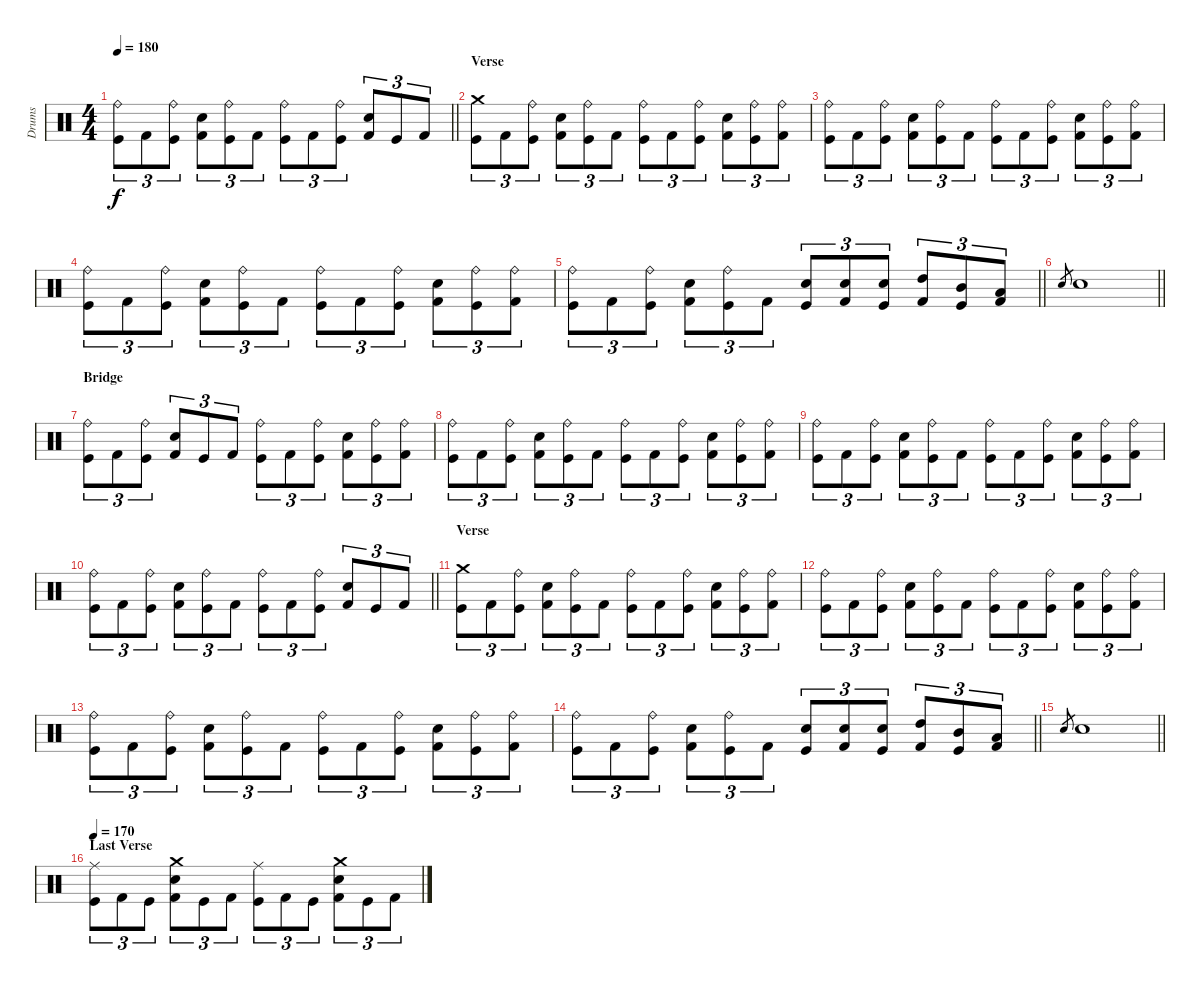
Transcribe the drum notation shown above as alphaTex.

\track ("Drums" "Drums") {instrument percussion}
\staff {score}
\articulation defaults
\ts (4 4)
\tempo 180
\clef neutral
\barLineRight lightlight
\ks c
("Ride (bell)" "Kick (hit)").8{tu (3 2) dy f} "Kick (hit) 2".8{tu (3 2)} ("Ride (bell)" "Kick (hit)").8{tu (3 2)} ("Electric Snare (hit)" "Kick (hit) 2").8{tu (3 2)} ("Ride (bell)" "Kick (hit)").8{tu (3 2)} "Kick (hit) 2".8{tu (3 2)} ("Ride (bell)" "Kick (hit)").8{tu (3 2)} "Kick (hit) 2".8{tu (3 2)} ("Ride (bell)" "Kick (hit)").8{tu (3 2)} ("Electric Snare (hit)" "Kick (hit) 2").8{tu (3 2)} "Kick (hit)".8{tu (3 2)} "Kick (hit) 2".8{tu (3 2)} |
\section ("" "Verse")
("Crash medium (hit)" "Kick (hit)").8{tu (3 2)} "Kick (hit) 2".8{tu (3 2)} ("Ride (bell)" "Kick (hit)").8{tu (3 2)} ("Electric Snare (hit)" "Kick (hit) 2").8{tu (3 2)} ("Ride (bell)" "Kick (hit)").8{tu (3 2)} "Kick (hit) 2".8{tu (3 2)} ("Ride (bell)" "Kick (hit)").8{tu (3 2)} "Kick (hit) 2".8{tu (3 2)} ("Ride (bell)" "Kick (hit)").8{tu (3 2)} ("Electric Snare (hit)" "Kick (hit) 2").8{tu (3 2)} ("Ride (bell)" "Kick (hit)").8{tu (3 2)} ("Ride (bell)" "Kick (hit) 2").8{tu (3 2)} |
("Ride (bell)" "Kick (hit)").8{tu (3 2)} "Kick (hit) 2".8{tu (3 2)} ("Ride (bell)" "Kick (hit)").8{tu (3 2)} ("Electric Snare (hit)" "Kick (hit) 2").8{tu (3 2)} ("Ride (bell)" "Kick (hit)").8{tu (3 2)} "Kick (hit) 2".8{tu (3 2)} ("Ride (bell)" "Kick (hit)").8{tu (3 2)} "Kick (hit) 2".8{tu (3 2)} ("Ride (bell)" "Kick (hit)").8{tu (3 2)} ("Electric Snare (hit)" "Kick (hit) 2").8{tu (3 2)} ("Ride (bell)" "Kick (hit)").8{tu (3 2)} ("Ride (bell)" "Kick (hit) 2").8{tu (3 2)} |
("Ride (bell)" "Kick (hit)").8{tu (3 2)} "Kick (hit) 2".8{tu (3 2)} ("Ride (bell)" "Kick (hit)").8{tu (3 2)} ("Electric Snare (hit)" "Kick (hit) 2").8{tu (3 2)} ("Ride (bell)" "Kick (hit)").8{tu (3 2)} "Kick (hit) 2".8{tu (3 2)} ("Ride (bell)" "Kick (hit)").8{tu (3 2)} "Kick (hit) 2".8{tu (3 2)} ("Ride (bell)" "Kick (hit)").8{tu (3 2)} ("Electric Snare (hit)" "Kick (hit) 2").8{tu (3 2)} ("Ride (bell)" "Kick (hit)").8{tu (3 2)} ("Ride (bell)" "Kick (hit) 2").8{tu (3 2)} |
\barLineRight lightlight
("Ride (bell)" "Kick (hit)").8{tu (3 2)} "Kick (hit) 2".8{tu (3 2)} ("Ride (bell)" "Kick (hit)").8{tu (3 2)} ("Electric Snare (hit)" "Kick (hit) 2").8{tu (3 2)} ("Ride (bell)" "Kick (hit)").8{tu (3 2)} "Kick (hit) 2".8{tu (3 2)} ("Electric Snare (hit)" "Kick (hit)").8{tu (3 2)} ("Electric Snare (hit)" "Kick (hit) 2").8{tu (3 2)} ("Electric Snare (hit)" "Kick (hit)").8{tu (3 2)} ("High Tom (hit)" "Kick (hit) 2").8{tu (3 2)} ("Mid Tom (hit)" "Kick (hit)").8{tu (3 2)} ("Low Tom (hit)" "Kick (hit) 2").8{tu (3 2)} |
\barLineRight lightlight "Electric Snare (hit)".8{gr} "Electric Snare (hit)".1
|
\section ("" "Bridge")
("Ride (bell)" "Kick (hit)").8{tu (3 2)} "Kick (hit) 2".8{tu (3 2)} ("Ride (bell)" "Kick (hit)").8{tu (3 2)} ("Electric Snare (hit)" "Kick (hit) 2").8{tu (3 2)} "Kick (hit)".8{tu (3 2)} "Kick (hit) 2".8{tu (3 2)} ("Ride (bell)" "Kick (hit)").8{tu (3 2)} "Kick (hit) 2".8{tu (3 2)} ("Ride (bell)" "Kick (hit)").8{tu (3 2)} ("Electric Snare (hit)" "Kick (hit) 2").8{tu (3 2)} ("Ride (bell)" "Kick (hit)").8{tu (3 2)} ("Ride (bell)" "Kick (hit) 2").8{tu (3 2)} |
("Ride (bell)" "Kick (hit)").8{tu (3 2)} "Kick (hit) 2".8{tu (3 2)} ("Ride (bell)" "Kick (hit)").8{tu (3 2)} ("Electric Snare (hit)" "Kick (hit) 2").8{tu (3 2)} ("Ride (bell)" "Kick (hit)").8{tu (3 2)} "Kick (hit) 2".8{tu (3 2)} ("Ride (bell)" "Kick (hit)").8{tu (3 2)} "Kick (hit) 2".8{tu (3 2)} ("Ride (bell)" "Kick (hit)").8{tu (3 2)} ("Electric Snare (hit)" "Kick (hit) 2").8{tu (3 2)} ("Ride (bell)" "Kick (hit)").8{tu (3 2)} ("Ride (bell)" "Kick (hit) 2").8{tu (3 2)} |
("Ride (bell)" "Kick (hit)").8{tu (3 2)} "Kick (hit) 2".8{tu (3 2)} ("Ride (bell)" "Kick (hit)").8{tu (3 2)} ("Electric Snare (hit)" "Kick (hit) 2").8{tu (3 2)} ("Ride (bell)" "Kick (hit)").8{tu (3 2)} "Kick (hit) 2".8{tu (3 2)} ("Ride (bell)" "Kick (hit)").8{tu (3 2)} "Kick (hit) 2".8{tu (3 2)} ("Ride (bell)" "Kick (hit)").8{tu (3 2)} ("Electric Snare (hit)" "Kick (hit) 2").8{tu (3 2)} ("Ride (bell)" "Kick (hit)").8{tu (3 2)} ("Ride (bell)" "Kick (hit) 2").8{tu (3 2)} |
\barLineRight lightlight
("Ride (bell)" "Kick (hit)").8{tu (3 2)} "Kick (hit) 2".8{tu (3 2)} ("Ride (bell)" "Kick (hit)").8{tu (3 2)} ("Electric Snare (hit)" "Kick (hit) 2").8{tu (3 2)} ("Ride (bell)" "Kick (hit)").8{tu (3 2)} "Kick (hit) 2".8{tu (3 2)} ("Ride (bell)" "Kick (hit)").8{tu (3 2)} "Kick (hit) 2".8{tu (3 2)} ("Ride (bell)" "Kick (hit)").8{tu (3 2)} ("Electric Snare (hit)" "Kick (hit) 2").8{tu (3 2)} "Kick (hit)".8{tu (3 2)} "Kick (hit) 2".8{tu (3 2)} |
\section ("" "Verse")
("Crash medium (hit)" "Kick (hit)").8{tu (3 2)} "Kick (hit) 2".8{tu (3 2)} ("Ride (bell)" "Kick (hit)").8{tu (3 2)} ("Electric Snare (hit)" "Kick (hit) 2").8{tu (3 2)} ("Ride (bell)" "Kick (hit)").8{tu (3 2)} "Kick (hit) 2".8{tu (3 2)} ("Ride (bell)" "Kick (hit)").8{tu (3 2)} "Kick (hit) 2".8{tu (3 2)} ("Ride (bell)" "Kick (hit)").8{tu (3 2)} ("Electric Snare (hit)" "Kick (hit) 2").8{tu (3 2)} ("Ride (bell)" "Kick (hit)").8{tu (3 2)} ("Ride (bell)" "Kick (hit) 2").8{tu (3 2)} |
("Ride (bell)" "Kick (hit)").8{tu (3 2)} "Kick (hit) 2".8{tu (3 2)} ("Ride (bell)" "Kick (hit)").8{tu (3 2)} ("Electric Snare (hit)" "Kick (hit) 2").8{tu (3 2)} ("Ride (bell)" "Kick (hit)").8{tu (3 2)} "Kick (hit) 2".8{tu (3 2)} ("Ride (bell)" "Kick (hit)").8{tu (3 2)} "Kick (hit) 2".8{tu (3 2)} ("Ride (bell)" "Kick (hit)").8{tu (3 2)} ("Electric Snare (hit)" "Kick (hit) 2").8{tu (3 2)} ("Ride (bell)" "Kick (hit)").8{tu (3 2)} ("Ride (bell)" "Kick (hit) 2").8{tu (3 2)} |
("Ride (bell)" "Kick (hit)").8{tu (3 2)} "Kick (hit) 2".8{tu (3 2)} ("Ride (bell)" "Kick (hit)").8{tu (3 2)} ("Electric Snare (hit)" "Kick (hit) 2").8{tu (3 2)} ("Ride (bell)" "Kick (hit)").8{tu (3 2)} "Kick (hit) 2".8{tu (3 2)} ("Ride (bell)" "Kick (hit)").8{tu (3 2)} "Kick (hit) 2".8{tu (3 2)} ("Ride (bell)" "Kick (hit)").8{tu (3 2)} ("Electric Snare (hit)" "Kick (hit) 2").8{tu (3 2)} ("Ride (bell)" "Kick (hit)").8{tu (3 2)} ("Ride (bell)" "Kick (hit) 2").8{tu (3 2)} |
\barLineRight lightlight
("Ride (bell)" "Kick (hit)").8{tu (3 2)} "Kick (hit) 2".8{tu (3 2)} ("Ride (bell)" "Kick (hit)").8{tu (3 2)} ("Electric Snare (hit)" "Kick (hit) 2").8{tu (3 2)} ("Ride (bell)" "Kick (hit)").8{tu (3 2)} "Kick (hit) 2".8{tu (3 2)} ("Electric Snare (hit)" "Kick (hit)").8{tu (3 2)} ("Electric Snare (hit)" "Kick (hit) 2").8{tu (3 2)} ("Electric Snare (hit)" "Kick (hit)").8{tu (3 2)} ("High Tom (hit)" "Kick (hit) 2").8{tu (3 2)} ("Mid Tom (hit)" "Kick (hit)").8{tu (3 2)} ("Low Tom (hit)" "Kick (hit) 2").8{tu (3 2)} |
\barLineRight lightlight "Electric Snare (hit)".8{gr} "Electric Snare (hit)".1
|
\section ("" "Last Verse")
\tempo 170
("Ride (middle)" "Kick (hit)").8{tu (3 2)} "Kick (hit) 2".8{tu (3 2)} "Kick (hit)".8{tu (3 2)} ("Crash medium (hit)" "Electric Snare (hit)" "Kick (hit) 2").8{tu (3 2)} "Kick (hit)".8{tu (3 2)} "Kick (hit) 2".8{tu (3 2)} ("Ride (middle)" "Kick (hit)").8{tu (3 2)} "Kick (hit) 2".8{tu (3 2)} "Kick (hit)".8{tu (3 2)} ("Crash medium (hit)" "Electric Snare (hit)" "Kick (hit) 2").8{tu (3 2)} "Kick (hit)".8{tu (3 2)} "Kick (hit) 2".8{tu (3 2)}
